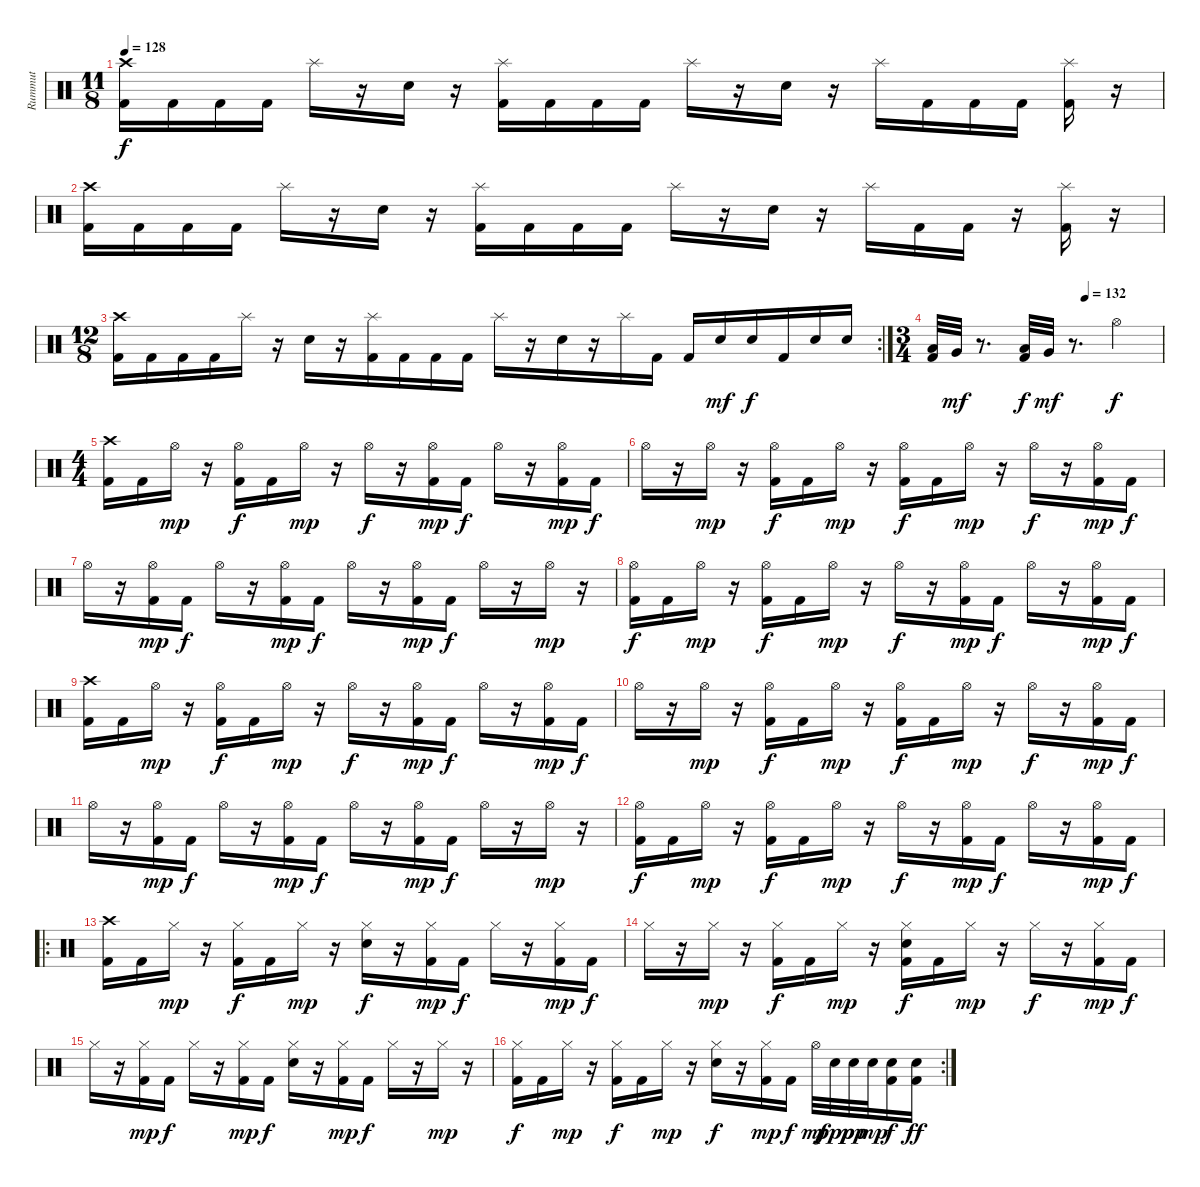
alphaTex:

\track ("Rummut" "Rummut") {instrument percussion}
\staff {score}
\articulation defaults
\ts (11 8)
\tempo 128
\clef neutral
\ks c
("Crash high (hit)" "Kick (hit) 2").16{dy f} "Kick (hit) 2".16 "Kick (hit) 2".16 "Kick (hit) 2".16 "Splash (hit)".16 r.16 "Electric Snare (hit)".16 r.16 ("Splash (hit)" "Kick (hit) 2").16 "Kick (hit) 2".16 "Kick (hit) 2".16 "Kick (hit) 2".16 "Splash (hit)".16 r.16 "Electric Snare (hit)".16 r.16 "Splash (hit)".16 "Kick (hit) 2".16 "Kick (hit) 2".16 "Kick (hit) 2".16 ("Splash (hit)" "Kick (hit) 2").16 r.16 |
("Crash high (hit)" "Kick (hit) 2").16 "Kick (hit) 2".16 "Kick (hit) 2".16 "Kick (hit) 2".16 "Splash (hit)".16 r.16 "Electric Snare (hit)".16 r.16 ("Splash (hit)" "Kick (hit) 2").16 "Kick (hit) 2".16 "Kick (hit) 2".16 "Kick (hit) 2".16 "Splash (hit)".16 r.16 "Electric Snare (hit)".16 r.16 "Splash (hit)".16 "Kick (hit) 2".16 "Kick (hit) 2".16 r.16 ("Splash (hit)" "Kick (hit) 2").16 r.16 |
\rc 2
\ts (12 8)
("Crash high (hit)" "Kick (hit) 2").16 "Kick (hit) 2".16 "Kick (hit) 2".16 "Kick (hit) 2".16 "Splash (hit)".16 r.16 "Electric Snare (hit)".16 r.16 ("Splash (hit)" "Kick (hit) 2").16 "Kick (hit) 2".16 "Kick (hit) 2".16 "Kick (hit) 2".16 "Splash (hit)".16 r.16 "Electric Snare (hit)".16 r.16 "Splash (hit)".16 "Kick (hit) 2".16 "Kick (hit) 2".16 "Electric Snare (hit)".16{dy mf} "Electric Snare (hit)".16{dy f} "Kick (hit) 2".16 "Electric Snare (hit)".16 "Electric Snare (hit)".16 |
\ts (3 4)
\tempo (132 0.6666666666666666)
("Low Floor Tom (hit)" "Kick (hit) 2").32 "Very Low Tom (hit)".32{dy mf} r.8{d} ("Low Floor Tom (hit)" "Kick (hit) 2").32{dy f} "Very Low Tom (hit)".32{dy mf} r.8{d} "Hi-Hat (open)".4{dy f} |
\ts (4 4)
("Crash high (hit)" "Kick (hit) 2").16 "Kick (hit) 2".16 "Hi-Hat (open)".16{dy mp} r.16 ("Hi-Hat (open)" "Kick (hit) 2").16{dy f} "Kick (hit) 2".16 "Hi-Hat (open)".16{dy mp} r.16 "Hi-Hat (open)".16{dy f} r.16 ("Hi-Hat (open)" "Kick (hit) 2").16{dy mp} "Kick (hit) 2".16{dy f} "Hi-Hat (open)".16 r.16 ("Hi-Hat (open)" "Kick (hit) 2").16{dy mp} "Kick (hit) 2".16{dy f} |
"Hi-Hat (open)".16 r.16 "Hi-Hat (open)".16{dy mp} r.16 ("Hi-Hat (open)" "Kick (hit) 2").16{dy f} "Kick (hit) 2".16 "Hi-Hat (open)".16{dy mp} r.16 ("Hi-Hat (open)" "Kick (hit) 2").16{dy f} "Kick (hit) 2".16 "Hi-Hat (open)".16{dy mp} r.16 "Hi-Hat (open)".16{dy f} r.16 ("Hi-Hat (open)" "Kick (hit) 2").16{dy mp} "Kick (hit) 2".16{dy f} |
"Hi-Hat (open)".16 r.16 ("Hi-Hat (open)" "Kick (hit) 2").16{dy mp} "Kick (hit) 2".16{dy f} "Hi-Hat (open)".16 r.16 ("Hi-Hat (open)" "Kick (hit) 2").16{dy mp} "Kick (hit) 2".16{dy f} "Hi-Hat (open)".16 r.16 ("Hi-Hat (open)" "Kick (hit) 2").16{dy mp} "Kick (hit) 2".16{dy f} "Hi-Hat (open)".16 r.16 "Hi-Hat (open)".16{dy mp} r.16 |
("Hi-Hat (open)" "Kick (hit) 2").16{dy f} "Kick (hit) 2".16 "Hi-Hat (open)".16{dy mp} r.16 ("Hi-Hat (open)" "Kick (hit) 2").16{dy f} "Kick (hit) 2".16 "Hi-Hat (open)".16{dy mp} r.16 "Hi-Hat (open)".16{dy f} r.16 ("Hi-Hat (open)" "Kick (hit) 2").16{dy mp} "Kick (hit) 2".16{dy f} "Hi-Hat (open)".16 r.16 ("Hi-Hat (open)" "Kick (hit) 2").16{dy mp} "Kick (hit) 2".16{dy f} |
("Crash high (hit)" "Kick (hit) 2").16 "Kick (hit) 2".16 "Hi-Hat (open)".16{dy mp} r.16 ("Hi-Hat (open)" "Kick (hit) 2").16{dy f} "Kick (hit) 2".16 "Hi-Hat (open)".16{dy mp} r.16 "Hi-Hat (open)".16{dy f} r.16 ("Hi-Hat (open)" "Kick (hit) 2").16{dy mp} "Kick (hit) 2".16{dy f} "Hi-Hat (open)".16 r.16 ("Hi-Hat (open)" "Kick (hit) 2").16{dy mp} "Kick (hit) 2".16{dy f} |
"Hi-Hat (open)".16 r.16 "Hi-Hat (open)".16{dy mp} r.16 ("Hi-Hat (open)" "Kick (hit) 2").16{dy f} "Kick (hit) 2".16 "Hi-Hat (open)".16{dy mp} r.16 ("Hi-Hat (open)" "Kick (hit) 2").16{dy f} "Kick (hit) 2".16 "Hi-Hat (open)".16{dy mp} r.16 "Hi-Hat (open)".16{dy f} r.16 ("Hi-Hat (open)" "Kick (hit) 2").16{dy mp} "Kick (hit) 2".16{dy f} |
"Hi-Hat (open)".16 r.16 ("Hi-Hat (open)" "Kick (hit) 2").16{dy mp} "Kick (hit) 2".16{dy f} "Hi-Hat (open)".16 r.16 ("Hi-Hat (open)" "Kick (hit) 2").16{dy mp} "Kick (hit) 2".16{dy f} "Hi-Hat (open)".16 r.16 ("Hi-Hat (open)" "Kick (hit) 2").16{dy mp} "Kick (hit) 2".16{dy f} "Hi-Hat (open)".16 r.16 "Hi-Hat (open)".16{dy mp} r.16 |
("Hi-Hat (open)" "Kick (hit) 2").16{dy f} "Kick (hit) 2".16 "Hi-Hat (open)".16{dy mp} r.16 ("Hi-Hat (open)" "Kick (hit) 2").16{dy f} "Kick (hit) 2".16 "Hi-Hat (open)".16{dy mp} r.16 "Hi-Hat (open)".16{dy f} r.16 ("Hi-Hat (open)" "Kick (hit) 2").16{dy mp} "Kick (hit) 2".16{dy f} "Hi-Hat (open)".16 r.16 ("Hi-Hat (open)" "Kick (hit) 2").16{dy mp} "Kick (hit) 2".16{dy f} |
\ro
("Crash high (hit)" "Kick (hit) 2").16 "Kick (hit) 2".16 "Hi-Hat (closed)".16{dy mp} r.16 ("Hi-Hat (closed)" "Kick (hit) 2").16{dy f} "Kick (hit) 2".16 "Hi-Hat (closed)".16{dy mp} r.16 ("Hi-Hat (closed)" "Electric Snare (hit)").16{dy f} r.16 ("Hi-Hat (closed)" "Kick (hit) 2").16{dy mp} "Kick (hit) 2".16{dy f} "Hi-Hat (closed)".16 r.16 ("Hi-Hat (closed)" "Kick (hit) 2").16{dy mp} "Kick (hit) 2".16{dy f} |
"Hi-Hat (closed)".16 r.16 "Hi-Hat (closed)".16{dy mp} r.16 ("Hi-Hat (closed)" "Kick (hit) 2").16{dy f} "Kick (hit) 2".16 "Hi-Hat (closed)".16{dy mp} r.16 ("Hi-Hat (closed)" "Electric Snare (hit)" "Kick (hit) 2").16{dy f} "Kick (hit) 2".16 "Hi-Hat (closed)".16{dy mp} r.16 "Hi-Hat (closed)".16{dy f} r.16 ("Hi-Hat (closed)" "Kick (hit) 2").16{dy mp} "Kick (hit) 2".16{dy f} |
"Hi-Hat (closed)".16 r.16 ("Hi-Hat (closed)" "Kick (hit) 2").16{dy mp} "Kick (hit) 2".16{dy f} "Hi-Hat (closed)".16 r.16 ("Hi-Hat (closed)" "Kick (hit) 2").16{dy mp} "Kick (hit) 2".16{dy f} ("Hi-Hat (closed)" "Electric Snare (hit)").16 r.16 ("Hi-Hat (closed)" "Kick (hit) 2").16{dy mp} "Kick (hit) 2".16{dy f} "Hi-Hat (closed)".16 r.16 "Hi-Hat (closed)".16{dy mp} r.16 |
\rc 2
("Hi-Hat (closed)" "Kick (hit) 2").16{dy f} "Kick (hit) 2".16 "Hi-Hat (closed)".16{dy mp} r.16 ("Hi-Hat (closed)" "Kick (hit) 2").16{dy f} "Kick (hit) 2".16 "Hi-Hat (closed)".16{dy mp} r.16 ("Hi-Hat (closed)" "Electric Snare (hit)").16{dy f} r.16 ("Hi-Hat (closed)" "Kick (hit) 2").16{dy mp} "Kick (hit) 2".16{dy f} "Hi-Hat (open)".32{dy mf} "Electric Snare (hit)".32{dy ppp} "Electric Snare (hit)".32{dy pp} "Electric Snare (hit)".32{dy mp} ("Electric Snare (hit)" "Kick (hit) 2").16{dy f} ("Electric Snare (hit)" "Kick (hit) 2").16{dy ff}
